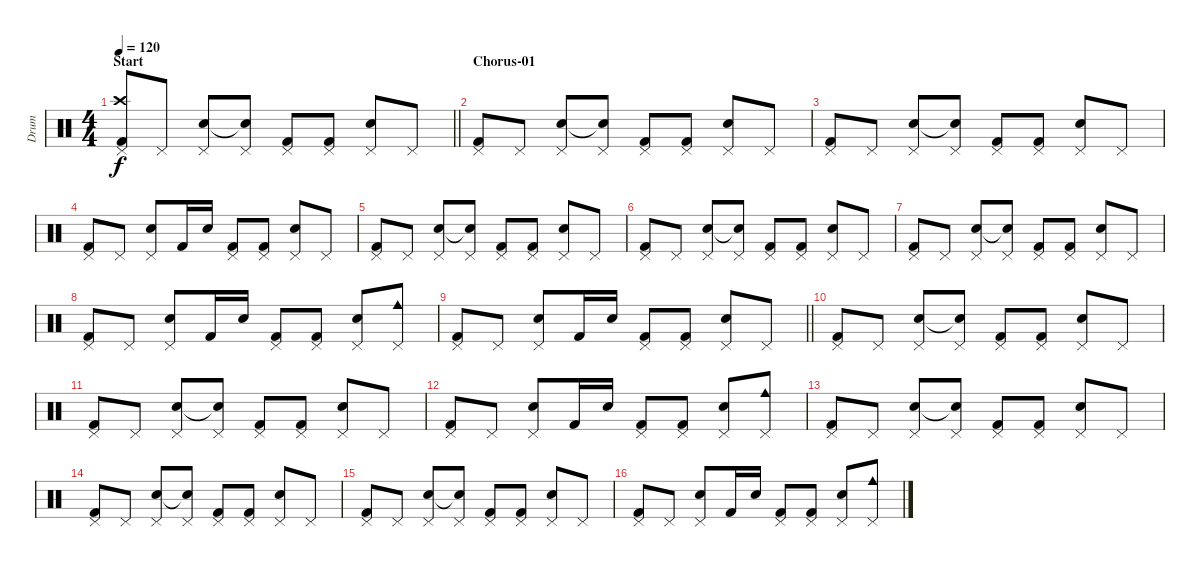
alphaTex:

\track ("Drum" "Drum") {instrument percussion}
\staff {score}
\articulation defaults
\ts (4 4)
\section ("" "Start")
\tempo 120
\clef neutral
\barLineRight lightlight
\ks c
("Pedal Hi-Hat (hit)" "Crash high (hit)" "Kick (hit) 2").8{dy f} "Pedal Hi-Hat (hit)".8 ("Pedal Hi-Hat (hit)" "Snare (hit) 2").8 ("Pedal Hi-Hat (hit)" "Snare (hit)"{t}).8 ("Pedal Hi-Hat (hit)" "Kick (hit) 2").8 ("Pedal Hi-Hat (hit)" "Kick (hit) 2").8 ("Pedal Hi-Hat (hit)" "Snare (hit) 2").8 "Pedal Hi-Hat (hit)".8 |
\section ("" "Chorus-01")
("Pedal Hi-Hat (hit)" "Kick (hit) 2").8 "Pedal Hi-Hat (hit)".8 ("Pedal Hi-Hat (hit)" "Snare (hit) 2").8 ("Pedal Hi-Hat (hit)" "Snare (hit)"{t}).8 ("Pedal Hi-Hat (hit)" "Kick (hit) 2").8 ("Pedal Hi-Hat (hit)" "Kick (hit) 2").8 ("Pedal Hi-Hat (hit)" "Snare (hit) 2").8 "Pedal Hi-Hat (hit)".8 |
("Pedal Hi-Hat (hit)" "Kick (hit) 2").8 "Pedal Hi-Hat (hit)".8 ("Pedal Hi-Hat (hit)" "Snare (hit) 2").8 ("Pedal Hi-Hat (hit)" "Snare (hit)"{t}).8 ("Pedal Hi-Hat (hit)" "Kick (hit) 2").8 ("Pedal Hi-Hat (hit)" "Kick (hit) 2").8 ("Pedal Hi-Hat (hit)" "Snare (hit) 2").8 "Pedal Hi-Hat (hit)".8 |
("Pedal Hi-Hat (hit)" "Kick (hit) 2").8 "Pedal Hi-Hat (hit)".8 ("Pedal Hi-Hat (hit)" "Snare (hit) 2").8 "Kick (hit) 2".16 "Snare (hit) 2".16 ("Pedal Hi-Hat (hit)" "Kick (hit) 2").8 ("Pedal Hi-Hat (hit)" "Kick (hit) 2").8 ("Pedal Hi-Hat (hit)" "Snare (hit) 2").8 "Pedal Hi-Hat (hit)".8 |
("Pedal Hi-Hat (hit)" "Kick (hit) 2").8 "Pedal Hi-Hat (hit)".8 ("Pedal Hi-Hat (hit)" "Snare (hit) 2").8 ("Pedal Hi-Hat (hit)" "Snare (hit)"{t}).8 ("Pedal Hi-Hat (hit)" "Kick (hit) 2").8 ("Pedal Hi-Hat (hit)" "Kick (hit) 2").8 ("Pedal Hi-Hat (hit)" "Snare (hit) 2").8 "Pedal Hi-Hat (hit)".8 |
("Pedal Hi-Hat (hit)" "Kick (hit) 2").8 "Pedal Hi-Hat (hit)".8 ("Pedal Hi-Hat (hit)" "Snare (hit) 2").8 ("Pedal Hi-Hat (hit)" "Snare (hit)"{t}).8 ("Pedal Hi-Hat (hit)" "Kick (hit) 2").8 ("Pedal Hi-Hat (hit)" "Kick (hit) 2").8 ("Pedal Hi-Hat (hit)" "Snare (hit) 2").8 "Pedal Hi-Hat (hit)".8 |
("Pedal Hi-Hat (hit)" "Kick (hit) 2").8 "Pedal Hi-Hat (hit)".8 ("Pedal Hi-Hat (hit)" "Snare (hit) 2").8 ("Pedal Hi-Hat (hit)" "Snare (hit)"{t}).8 ("Pedal Hi-Hat (hit)" "Kick (hit) 2").8 ("Pedal Hi-Hat (hit)" "Kick (hit) 2").8 ("Pedal Hi-Hat (hit)" "Snare (hit) 2").8 "Pedal Hi-Hat (hit)".8 |
("Pedal Hi-Hat (hit)" "Kick (hit) 2").8 "Pedal Hi-Hat (hit)".8 ("Pedal Hi-Hat (hit)" "Snare (hit) 2").8 "Kick (hit) 2".16 "Snare (hit) 2".16 ("Pedal Hi-Hat (hit)" "Kick (hit) 2").8 ("Pedal Hi-Hat (hit)" "Kick (hit) 2").8 ("Pedal Hi-Hat (hit)" "Snare (hit) 2").8 ("Pedal Hi-Hat (hit)" "Cowbell medium (hit)").8 |
\barLineRight lightlight
("Pedal Hi-Hat (hit)" "Kick (hit) 2").8 "Pedal Hi-Hat (hit)".8 ("Pedal Hi-Hat (hit)" "Snare (hit) 2").8 "Kick (hit) 2".16 "Snare (hit) 2".16 ("Pedal Hi-Hat (hit)" "Kick (hit) 2").8 ("Pedal Hi-Hat (hit)" "Kick (hit) 2").8 ("Pedal Hi-Hat (hit)" "Snare (hit) 2").8 "Pedal Hi-Hat (hit)".8 |
\section ("" "")
("Pedal Hi-Hat (hit)" "Kick (hit) 2").8 "Pedal Hi-Hat (hit)".8 ("Pedal Hi-Hat (hit)" "Snare (hit) 2").8 ("Pedal Hi-Hat (hit)" "Snare (hit)"{t}).8 ("Pedal Hi-Hat (hit)" "Kick (hit) 2").8 ("Pedal Hi-Hat (hit)" "Kick (hit) 2").8 ("Pedal Hi-Hat (hit)" "Snare (hit) 2").8 "Pedal Hi-Hat (hit)".8 |
("Pedal Hi-Hat (hit)" "Kick (hit) 2").8 "Pedal Hi-Hat (hit)".8 ("Pedal Hi-Hat (hit)" "Snare (hit) 2").8 ("Pedal Hi-Hat (hit)" "Snare (hit)"{t}).8 ("Pedal Hi-Hat (hit)" "Kick (hit) 2").8 ("Pedal Hi-Hat (hit)" "Kick (hit) 2").8 ("Pedal Hi-Hat (hit)" "Snare (hit) 2").8 "Pedal Hi-Hat (hit)".8 |
("Pedal Hi-Hat (hit)" "Kick (hit) 2").8 "Pedal Hi-Hat (hit)".8 ("Pedal Hi-Hat (hit)" "Snare (hit) 2").8 "Kick (hit) 2".16 "Snare (hit) 2".16 ("Pedal Hi-Hat (hit)" "Kick (hit) 2").8 ("Pedal Hi-Hat (hit)" "Kick (hit) 2").8 ("Pedal Hi-Hat (hit)" "Snare (hit) 2").8 ("Pedal Hi-Hat (hit)" "Cowbell medium (hit)").8 |
("Pedal Hi-Hat (hit)" "Kick (hit) 2").8 "Pedal Hi-Hat (hit)".8 ("Pedal Hi-Hat (hit)" "Snare (hit) 2").8 ("Pedal Hi-Hat (hit)" "Snare (hit)"{t}).8 ("Pedal Hi-Hat (hit)" "Kick (hit) 2").8 ("Pedal Hi-Hat (hit)" "Kick (hit) 2").8 ("Pedal Hi-Hat (hit)" "Snare (hit) 2").8 "Pedal Hi-Hat (hit)".8 |
("Pedal Hi-Hat (hit)" "Kick (hit) 2").8 "Pedal Hi-Hat (hit)".8 ("Pedal Hi-Hat (hit)" "Snare (hit) 2").8 ("Pedal Hi-Hat (hit)" "Snare (hit)"{t}).8 ("Pedal Hi-Hat (hit)" "Kick (hit) 2").8 ("Pedal Hi-Hat (hit)" "Kick (hit) 2").8 ("Pedal Hi-Hat (hit)" "Snare (hit) 2").8 "Pedal Hi-Hat (hit)".8 |
("Pedal Hi-Hat (hit)" "Kick (hit) 2").8 "Pedal Hi-Hat (hit)".8 ("Pedal Hi-Hat (hit)" "Snare (hit) 2").8 ("Pedal Hi-Hat (hit)" "Snare (hit)"{t}).8 ("Pedal Hi-Hat (hit)" "Kick (hit) 2").8 ("Pedal Hi-Hat (hit)" "Kick (hit) 2").8 ("Pedal Hi-Hat (hit)" "Snare (hit) 2").8 "Pedal Hi-Hat (hit)".8 |
("Pedal Hi-Hat (hit)" "Kick (hit) 2").8 "Pedal Hi-Hat (hit)".8 ("Pedal Hi-Hat (hit)" "Snare (hit) 2").8 "Kick (hit) 2".16 "Snare (hit) 2".16 ("Pedal Hi-Hat (hit)" "Kick (hit) 2").8 ("Pedal Hi-Hat (hit)" "Kick (hit) 2").8 ("Pedal Hi-Hat (hit)" "Snare (hit) 2").8 ("Pedal Hi-Hat (hit)" "Cowbell medium (hit)").8
